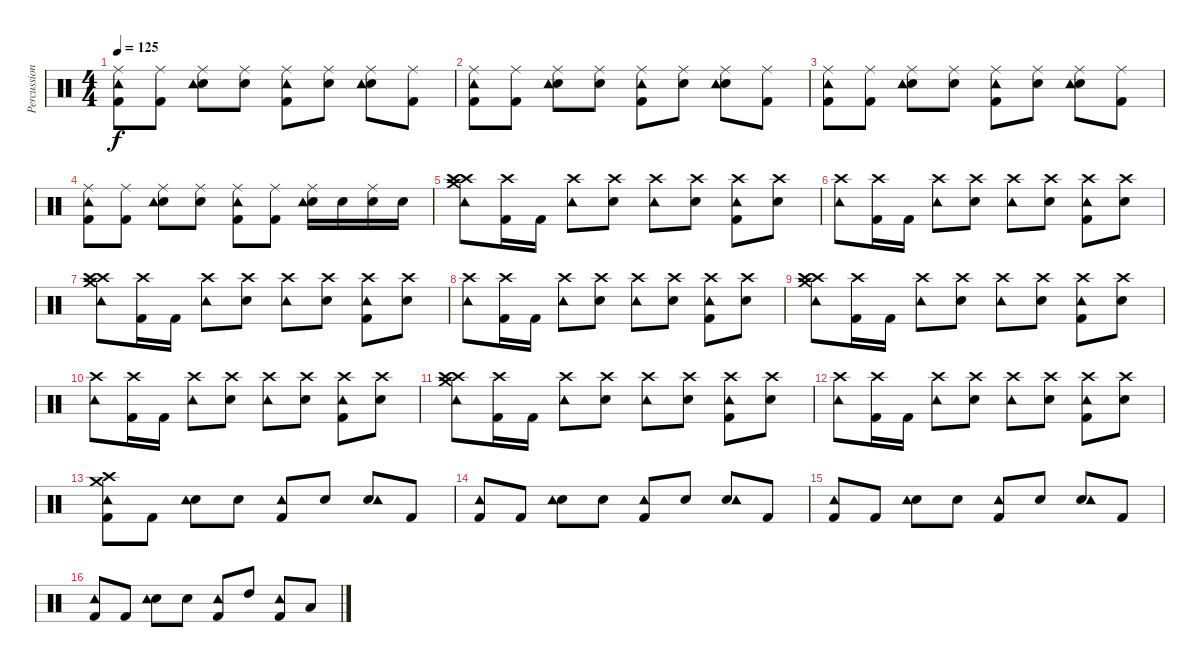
\track ("Percussioni" "Percussion") {instrument percussion}
\staff {score}
\articulation defaults
\ts (4 4)
\tempo 125
\clef neutral
\ks c
("Kick (hit) 2" "Ride (middle)" "Tambourine (hit)").8{dy f} ("Kick (hit) 2" "Ride (middle)").8 ("Snare (hit) 2" "Ride (middle)" "Tambourine (hit)").8 ("Snare (hit) 2" "Ride (middle)").8 ("Kick (hit) 2" "Ride (middle)" "Tambourine (hit)").8 ("Snare (hit) 2" "Ride (middle)").8 ("Snare (hit) 2" "Ride (middle)" "Tambourine (hit)").8 ("Kick (hit) 2" "Ride (middle)").8 |
("Kick (hit) 2" "Ride (middle)" "Tambourine (hit)").8 ("Kick (hit) 2" "Ride (middle)").8 ("Snare (hit) 2" "Ride (middle)" "Tambourine (hit)").8 ("Snare (hit) 2" "Ride (middle)").8 ("Kick (hit) 2" "Ride (middle)" "Tambourine (hit)").8 ("Snare (hit) 2" "Ride (middle)").8 ("Snare (hit) 2" "Ride (middle)" "Tambourine (hit)").8 ("Kick (hit) 2" "Ride (middle)").8 |
("Kick (hit) 2" "Ride (middle)" "Tambourine (hit)").8 ("Kick (hit) 2" "Ride (middle)").8 ("Snare (hit) 2" "Ride (middle)" "Tambourine (hit)").8 ("Snare (hit) 2" "Ride (middle)").8 ("Kick (hit) 2" "Ride (middle)" "Tambourine (hit)").8 ("Snare (hit) 2" "Ride (middle)").8 ("Snare (hit) 2" "Ride (middle)" "Tambourine (hit)").8 ("Kick (hit) 2" "Ride (middle)").8 |
("Kick (hit) 2" "Ride (middle)" "Tambourine (hit)").8 ("Kick (hit) 2" "Ride (middle)").8 ("Snare (hit) 2" "Ride (middle)" "Tambourine (hit)").8 ("Snare (hit) 2" "Ride (middle)").8 ("Kick (hit) 2" "Ride (middle)" "Tambourine (hit)").8 ("Kick (hit) 2" "Ride (middle)").8 ("Snare (hit) 2" "Ride (middle)" "Tambourine (hit)").16 "Snare (hit) 2".16 ("Snare (hit) 2" "Ride (middle)").16 "Snare (hit) 2".16 |
("Crash high (hit)" "Crash high (hit)" "Crash medium (hit)" "Tambourine (hit)").8 ("Crash high (hit)" "Kick (hit) 2").16 "Kick (hit) 2".16 ("Crash high (hit)" "Tambourine (hit)").8 ("Crash high (hit)" "Snare (hit) 2").8 ("Crash high (hit)" "Tambourine (hit)").8 ("Crash high (hit)" "Snare (hit) 2").8 ("Crash high (hit)" "Kick (hit) 2" "Tambourine (hit)").8 ("Crash high (hit)" "Snare (hit) 2").8 |
("Crash high (hit)" "Tambourine (hit)").8 ("Crash high (hit)" "Kick (hit) 2").16 "Kick (hit) 2".16 ("Crash high (hit)" "Tambourine (hit)").8 ("Crash high (hit)" "Snare (hit) 2").8 ("Crash high (hit)" "Tambourine (hit)").8 ("Crash high (hit)" "Snare (hit) 2").8 ("Crash high (hit)" "Kick (hit) 2" "Tambourine (hit)").8 ("Crash high (hit)" "Snare (hit) 2").8 |
("Crash high (hit)" "Crash high (hit)" "Crash medium (hit)" "Tambourine (hit)").8 ("Crash high (hit)" "Kick (hit) 2").16 "Kick (hit) 2".16 ("Crash high (hit)" "Tambourine (hit)").8 ("Crash high (hit)" "Snare (hit) 2").8 ("Crash high (hit)" "Tambourine (hit)").8 ("Crash high (hit)" "Snare (hit) 2").8 ("Crash high (hit)" "Kick (hit) 2" "Tambourine (hit)").8 ("Crash high (hit)" "Snare (hit) 2").8 |
("Crash high (hit)" "Tambourine (hit)").8 ("Crash high (hit)" "Kick (hit) 2").16 "Kick (hit) 2".16 ("Crash high (hit)" "Tambourine (hit)").8 ("Crash high (hit)" "Snare (hit) 2").8 ("Crash high (hit)" "Tambourine (hit)").8 ("Crash high (hit)" "Snare (hit) 2").8 ("Crash high (hit)" "Kick (hit) 2" "Tambourine (hit)").8 ("Crash high (hit)" "Snare (hit) 2").8 |
("Crash high (hit)" "Crash high (hit)" "Crash medium (hit)" "Tambourine (hit)").8 ("Crash high (hit)" "Kick (hit) 2").16 "Kick (hit) 2".16 ("Crash high (hit)" "Tambourine (hit)").8 ("Crash high (hit)" "Snare (hit) 2").8 ("Crash high (hit)" "Tambourine (hit)").8 ("Crash high (hit)" "Snare (hit) 2").8 ("Crash high (hit)" "Kick (hit) 2" "Tambourine (hit)").8 ("Crash high (hit)" "Snare (hit) 2").8 |
("Crash high (hit)" "Tambourine (hit)").8 ("Crash high (hit)" "Kick (hit) 2").16 "Kick (hit) 2".16 ("Crash high (hit)" "Tambourine (hit)").8 ("Crash high (hit)" "Snare (hit) 2").8 ("Crash high (hit)" "Tambourine (hit)").8 ("Crash high (hit)" "Snare (hit) 2").8 ("Crash high (hit)" "Kick (hit) 2" "Tambourine (hit)").8 ("Crash high (hit)" "Snare (hit) 2").8 |
("Crash high (hit)" "Crash high (hit)" "Crash medium (hit)" "Tambourine (hit)").8 ("Crash high (hit)" "Kick (hit) 2").16 "Kick (hit) 2".16 ("Crash high (hit)" "Tambourine (hit)").8 ("Crash high (hit)" "Snare (hit) 2").8 ("Crash high (hit)" "Tambourine (hit)").8 ("Crash high (hit)" "Snare (hit) 2").8 ("Crash high (hit)" "Kick (hit) 2" "Tambourine (hit)").8 ("Crash high (hit)" "Snare (hit) 2").8 |
("Crash high (hit)" "Tambourine (hit)").8 ("Crash high (hit)" "Kick (hit) 2").16 "Kick (hit) 2".16 ("Crash high (hit)" "Tambourine (hit)").8 ("Crash high (hit)" "Snare (hit) 2").8 ("Crash high (hit)" "Tambourine (hit)").8 ("Crash high (hit)" "Snare (hit) 2").8 ("Crash high (hit)" "Kick (hit) 2" "Tambourine (hit)").8 ("Crash high (hit)" "Snare (hit) 2").8 |
("Kick (hit) 2" "Crash high (hit)" "Crash medium (hit)" "Tambourine (hit)").8 "Kick (hit) 2".8 ("Snare (hit) 2" "Tambourine (hit)").8 "Snare (hit) 2".8 ("Kick (hit) 2" "Tambourine (hit)").8 "Snare (hit) 2".8 ("Snare (hit) 2" "Tambourine (hit)").8 "Kick (hit) 2".8 |
("Kick (hit) 2" "Tambourine (hit)").8 "Kick (hit) 2".8 ("Snare (hit) 2" "Tambourine (hit)").8 "Snare (hit) 2".8 ("Kick (hit) 2" "Tambourine (hit)").8 "Snare (hit) 2".8 ("Snare (hit) 2" "Tambourine (hit)").8 "Kick (hit) 2".8 |
("Kick (hit) 2" "Tambourine (hit)").8 "Kick (hit) 2".8 ("Snare (hit) 2" "Tambourine (hit)").8 "Snare (hit) 2".8 ("Kick (hit) 2" "Tambourine (hit)").8 "Snare (hit) 2".8 ("Snare (hit) 2" "Tambourine (hit)").8 "Kick (hit) 2".8 |
("Kick (hit) 2" "Tambourine (hit)").8 "Kick (hit) 2".8 ("Snare (hit) 2" "Tambourine (hit)").8 "Snare (hit) 2".8 ("Kick (hit) 2" "Tambourine (hit)").8 "High Tom (hit)".8 ("Kick (hit) 2" "Tambourine (hit)").8 "Low Floor Tom (hit)".8
